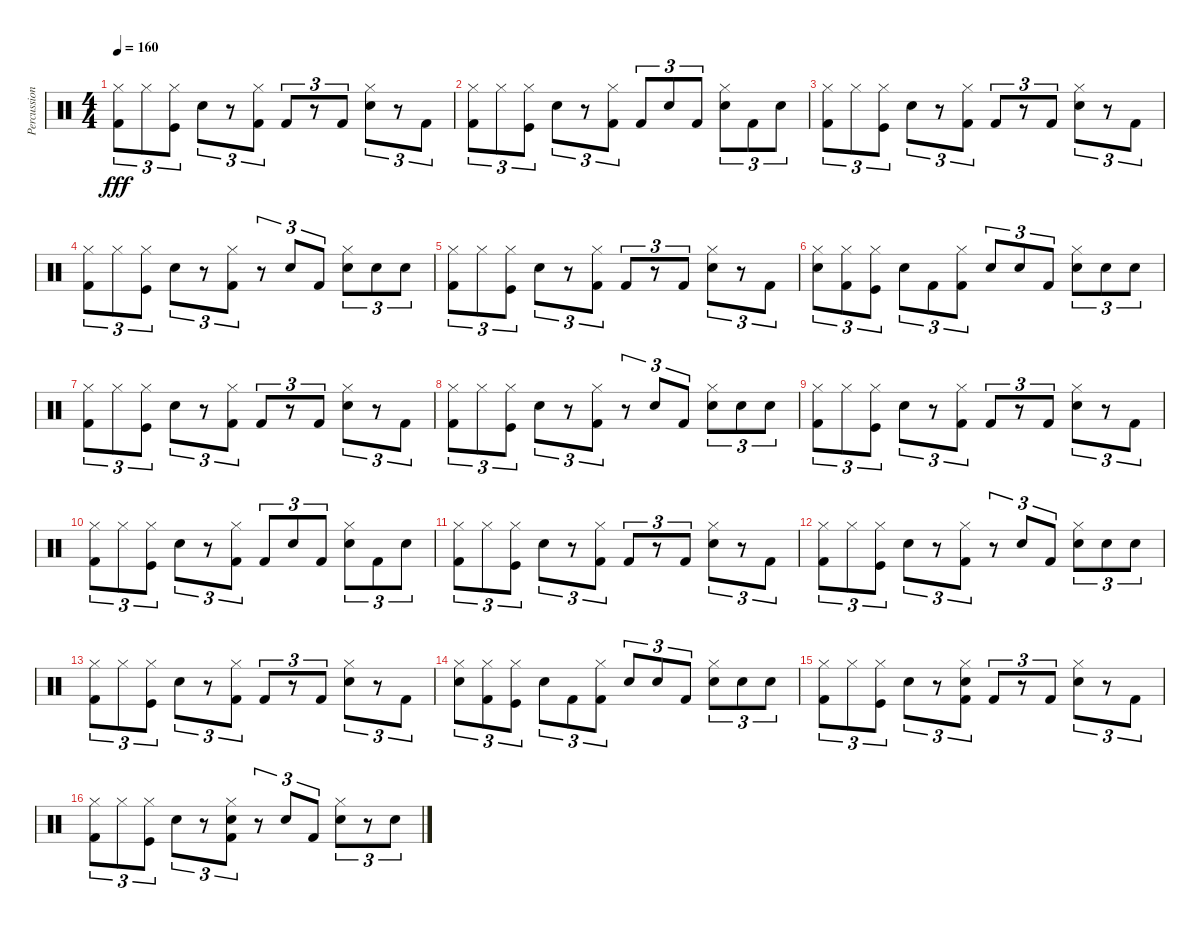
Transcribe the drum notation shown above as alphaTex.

\track ("Percussions" "Percussion") {instrument percussion}
\staff {score}
\articulation defaults
\ts (4 4)
\tempo 160
\clef neutral
\ks c
("Hi-Hat (closed)" "Kick (hit) 2").8{tu (3 2) dy fff} "Hi-Hat (closed)".8{tu (3 2)} ("Hi-Hat (closed)" "Kick (hit)").8{tu (3 2)} "Electric Snare (hit)".8{tu (3 2)} r.8{tu (3 2)} ("Hi-Hat (closed)" "Kick (hit) 2").8{tu (3 2)} "Kick (hit) 2".8{tu (3 2)} r.8{tu (3 2)} "Kick (hit) 2".8{tu (3 2)} ("Hi-Hat (closed)" "Electric Snare (hit)").8{tu (3 2)} r.8{tu (3 2)} "Kick (hit) 2".8{tu (3 2)} |
("Hi-Hat (closed)" "Kick (hit) 2").8{tu (3 2)} "Hi-Hat (closed)".8{tu (3 2)} ("Hi-Hat (closed)" "Kick (hit)").8{tu (3 2)} "Electric Snare (hit)".8{tu (3 2)} r.8{tu (3 2)} ("Hi-Hat (closed)" "Kick (hit) 2").8{tu (3 2)} "Kick (hit) 2".8{tu (3 2)} "Electric Snare (hit)".8{tu (3 2)} "Kick (hit) 2".8{tu (3 2)} ("Hi-Hat (closed)" "Electric Snare (hit)").8{tu (3 2)} "Kick (hit) 2".8{tu (3 2)} "Electric Snare (hit)".8{tu (3 2)} |
("Hi-Hat (closed)" "Kick (hit) 2").8{tu (3 2)} "Hi-Hat (closed)".8{tu (3 2)} ("Hi-Hat (closed)" "Kick (hit)").8{tu (3 2)} "Electric Snare (hit)".8{tu (3 2)} r.8{tu (3 2)} ("Hi-Hat (closed)" "Kick (hit) 2").8{tu (3 2)} "Kick (hit) 2".8{tu (3 2)} r.8{tu (3 2)} "Kick (hit) 2".8{tu (3 2)} ("Hi-Hat (closed)" "Electric Snare (hit)").8{tu (3 2)} r.8{tu (3 2)} "Kick (hit) 2".8{tu (3 2)} |
("Hi-Hat (closed)" "Kick (hit) 2").8{tu (3 2)} "Hi-Hat (closed)".8{tu (3 2)} ("Hi-Hat (closed)" "Kick (hit)").8{tu (3 2)} "Electric Snare (hit)".8{tu (3 2)} r.8{tu (3 2)} ("Hi-Hat (closed)" "Kick (hit) 2").8{tu (3 2)} r.8{tu (3 2)} "Electric Snare (hit)".8{tu (3 2)} "Kick (hit) 2".8{tu (3 2)} ("Hi-Hat (closed)" "Electric Snare (hit)").8{tu (3 2)} "Electric Snare (hit)".8{tu (3 2)} "Electric Snare (hit)".8{tu (3 2)} |
("Hi-Hat (closed)" "Kick (hit) 2").8{tu (3 2)} "Hi-Hat (closed)".8{tu (3 2)} ("Hi-Hat (closed)" "Kick (hit)").8{tu (3 2)} "Electric Snare (hit)".8{tu (3 2)} r.8{tu (3 2)} ("Hi-Hat (closed)" "Kick (hit) 2").8{tu (3 2)} "Kick (hit) 2".8{tu (3 2)} r.8{tu (3 2)} "Kick (hit) 2".8{tu (3 2)} ("Hi-Hat (closed)" "Electric Snare (hit)").8{tu (3 2)} r.8{tu (3 2)} "Kick (hit) 2".8{tu (3 2)} |
("Hi-Hat (closed)" "Electric Snare (hit)").8{tu (3 2)} ("Hi-Hat (closed)" "Kick (hit) 2").8{tu (3 2)} ("Hi-Hat (closed)" "Kick (hit)").8{tu (3 2)} "Electric Snare (hit)".8{tu (3 2)} "Kick (hit) 2".8{tu (3 2)} ("Hi-Hat (closed)" "Kick (hit) 2").8{tu (3 2)} "Electric Snare (hit)".8{tu (3 2)} "Electric Snare (hit)".8{tu (3 2)} "Kick (hit) 2".8{tu (3 2)} ("Hi-Hat (closed)" "Electric Snare (hit)").8{tu (3 2)} "Electric Snare (hit)".8{tu (3 2)} "Electric Snare (hit)".8{tu (3 2)} |
("Hi-Hat (closed)" "Kick (hit) 2").8{tu (3 2)} "Hi-Hat (closed)".8{tu (3 2)} ("Hi-Hat (closed)" "Kick (hit)").8{tu (3 2)} "Electric Snare (hit)".8{tu (3 2)} r.8{tu (3 2)} ("Hi-Hat (closed)" "Kick (hit) 2").8{tu (3 2)} "Kick (hit) 2".8{tu (3 2)} r.8{tu (3 2)} "Kick (hit) 2".8{tu (3 2)} ("Hi-Hat (closed)" "Electric Snare (hit)").8{tu (3 2)} r.8{tu (3 2)} "Kick (hit) 2".8{tu (3 2)} |
("Hi-Hat (closed)" "Kick (hit) 2").8{tu (3 2)} "Hi-Hat (closed)".8{tu (3 2)} ("Hi-Hat (closed)" "Kick (hit)").8{tu (3 2)} "Electric Snare (hit)".8{tu (3 2)} r.8{tu (3 2)} ("Hi-Hat (closed)" "Kick (hit) 2").8{tu (3 2)} r.8{tu (3 2)} "Electric Snare (hit)".8{tu (3 2)} "Kick (hit) 2".8{tu (3 2)} ("Hi-Hat (closed)" "Electric Snare (hit)").8{tu (3 2)} "Electric Snare (hit)".8{tu (3 2)} "Electric Snare (hit)".8{tu (3 2)} |
("Hi-Hat (closed)" "Kick (hit) 2").8{tu (3 2)} "Hi-Hat (closed)".8{tu (3 2)} ("Hi-Hat (closed)" "Kick (hit)").8{tu (3 2)} "Electric Snare (hit)".8{tu (3 2)} r.8{tu (3 2)} ("Hi-Hat (closed)" "Kick (hit) 2").8{tu (3 2)} "Kick (hit) 2".8{tu (3 2)} r.8{tu (3 2)} "Kick (hit) 2".8{tu (3 2)} ("Hi-Hat (closed)" "Electric Snare (hit)").8{tu (3 2)} r.8{tu (3 2)} "Kick (hit) 2".8{tu (3 2)} |
("Hi-Hat (closed)" "Kick (hit) 2").8{tu (3 2)} "Hi-Hat (closed)".8{tu (3 2)} ("Hi-Hat (closed)" "Kick (hit)").8{tu (3 2)} "Electric Snare (hit)".8{tu (3 2)} r.8{tu (3 2)} ("Hi-Hat (closed)" "Kick (hit) 2").8{tu (3 2)} "Kick (hit) 2".8{tu (3 2)} "Electric Snare (hit)".8{tu (3 2)} "Kick (hit) 2".8{tu (3 2)} ("Hi-Hat (closed)" "Electric Snare (hit)").8{tu (3 2)} "Kick (hit) 2".8{tu (3 2)} "Electric Snare (hit)".8{tu (3 2)} |
("Hi-Hat (closed)" "Kick (hit) 2").8{tu (3 2)} "Hi-Hat (closed)".8{tu (3 2)} ("Hi-Hat (closed)" "Kick (hit)").8{tu (3 2)} "Electric Snare (hit)".8{tu (3 2)} r.8{tu (3 2)} ("Hi-Hat (closed)" "Kick (hit) 2").8{tu (3 2)} "Kick (hit) 2".8{tu (3 2)} r.8{tu (3 2)} "Kick (hit) 2".8{tu (3 2)} ("Hi-Hat (closed)" "Electric Snare (hit)").8{tu (3 2)} r.8{tu (3 2)} "Kick (hit) 2".8{tu (3 2)} |
("Hi-Hat (closed)" "Kick (hit) 2").8{tu (3 2)} "Hi-Hat (closed)".8{tu (3 2)} ("Hi-Hat (closed)" "Kick (hit)").8{tu (3 2)} "Electric Snare (hit)".8{tu (3 2)} r.8{tu (3 2)} ("Hi-Hat (closed)" "Kick (hit) 2").8{tu (3 2)} r.8{tu (3 2)} "Electric Snare (hit)".8{tu (3 2)} "Kick (hit) 2".8{tu (3 2)} ("Hi-Hat (closed)" "Electric Snare (hit)").8{tu (3 2)} "Electric Snare (hit)".8{tu (3 2)} "Electric Snare (hit)".8{tu (3 2)} |
("Hi-Hat (closed)" "Kick (hit) 2").8{tu (3 2)} "Hi-Hat (closed)".8{tu (3 2)} ("Hi-Hat (closed)" "Kick (hit)").8{tu (3 2)} "Electric Snare (hit)".8{tu (3 2)} r.8{tu (3 2)} ("Hi-Hat (closed)" "Kick (hit) 2").8{tu (3 2)} "Kick (hit) 2".8{tu (3 2)} r.8{tu (3 2)} "Kick (hit) 2".8{tu (3 2)} ("Hi-Hat (closed)" "Electric Snare (hit)").8{tu (3 2)} r.8{tu (3 2)} "Kick (hit) 2".8{tu (3 2)} |
("Hi-Hat (closed)" "Electric Snare (hit)").8{tu (3 2)} ("Hi-Hat (closed)" "Kick (hit) 2").8{tu (3 2)} ("Hi-Hat (closed)" "Kick (hit)").8{tu (3 2)} "Electric Snare (hit)".8{tu (3 2)} "Kick (hit) 2".8{tu (3 2)} ("Hi-Hat (closed)" "Kick (hit) 2").8{tu (3 2)} "Electric Snare (hit)".8{tu (3 2)} "Electric Snare (hit)".8{tu (3 2)} "Kick (hit) 2".8{tu (3 2)} ("Hi-Hat (closed)" "Electric Snare (hit)").8{tu (3 2)} "Electric Snare (hit)".8{tu (3 2)} "Electric Snare (hit)".8{tu (3 2)} |
("Hi-Hat (closed)" "Kick (hit) 2").8{tu (3 2)} "Hi-Hat (closed)".8{tu (3 2)} ("Hi-Hat (closed)" "Kick (hit)").8{tu (3 2)} "Electric Snare (hit)".8{tu (3 2)} r.8{tu (3 2)} ("Hi-Hat (closed)" "Electric Snare (hit)" "Kick (hit) 2").8{tu (3 2)} "Kick (hit) 2".8{tu (3 2)} r.8{tu (3 2)} "Kick (hit) 2".8{tu (3 2)} ("Hi-Hat (closed)" "Electric Snare (hit)").8{tu (3 2)} r.8{tu (3 2)} "Kick (hit) 2".8{tu (3 2)} |
("Hi-Hat (closed)" "Kick (hit) 2").8{tu (3 2)} "Hi-Hat (closed)".8{tu (3 2)} ("Hi-Hat (closed)" "Kick (hit)").8{tu (3 2)} "Electric Snare (hit)".8{tu (3 2)} r.8{tu (3 2)} ("Hi-Hat (closed)" "Electric Snare (hit)" "Kick (hit) 2").8{tu (3 2)} r.8{tu (3 2)} "Electric Snare (hit)".8{tu (3 2)} "Kick (hit) 2".8{tu (3 2)} ("Hi-Hat (closed)" "Electric Snare (hit)").8{tu (3 2)} r.8{tu (3 2)} "Electric Snare (hit)".8{tu (3 2)}
